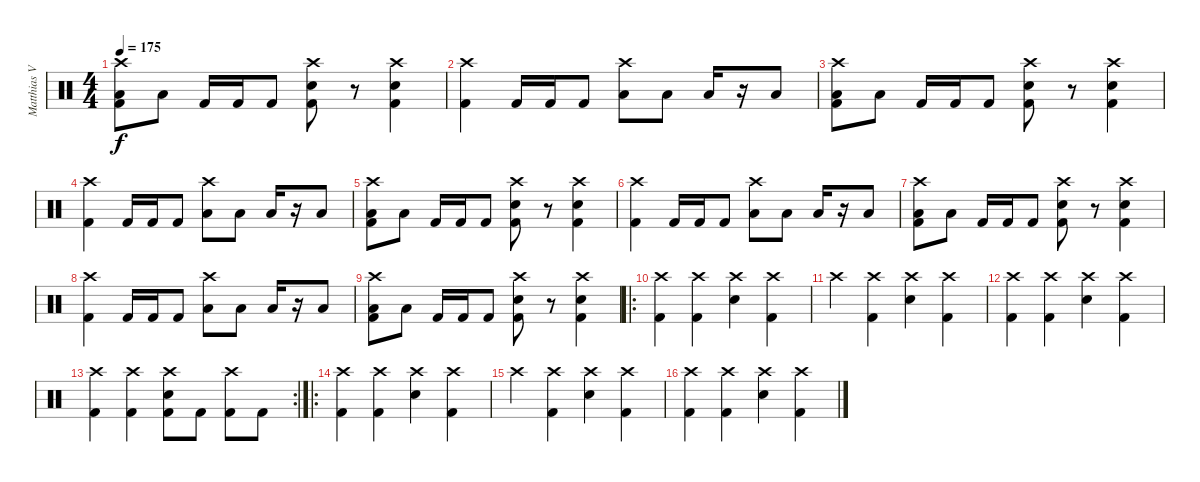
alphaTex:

\track ("Matthias Voigt" "Matthias V") {instrument percussion}
\staff {score}
\articulation defaults
\ts (4 4)
\tempo 175
\clef neutral
\ks c
("Crash high (hit)" "Low Tom (hit)" "Kick (hit) 2").8{dy f} "Low Tom (hit)".8 "Kick (hit) 2".16 "Kick (hit) 2".16 "Kick (hit) 2".8 ("Crash high (hit)" "Electric Snare (hit)" "Kick (hit) 2").8 r.8 ("Crash high (hit)" "Electric Snare (hit)" "Kick (hit) 2").4 |
("Crash high (hit)" "Kick (hit) 2").4 "Kick (hit) 2".16 "Kick (hit) 2".16 "Kick (hit) 2".8 ("Crash high (hit)" "Low Tom (hit)").8 "Low Tom (hit)".8 "Low Tom (hit)".16 r.16 "Low Tom (hit)".8 |
("Crash high (hit)" "Low Tom (hit)" "Kick (hit) 2").8 "Low Tom (hit)".8 "Kick (hit) 2".16 "Kick (hit) 2".16 "Kick (hit) 2".8 ("Crash high (hit)" "Electric Snare (hit)" "Kick (hit) 2").8 r.8 ("Crash high (hit)" "Electric Snare (hit)" "Kick (hit) 2").4 |
("Crash high (hit)" "Kick (hit) 2").4 "Kick (hit) 2".16 "Kick (hit) 2".16 "Kick (hit) 2".8 ("Crash high (hit)" "Low Tom (hit)").8 "Low Tom (hit)".8 "Low Tom (hit)".16 r.16 "Low Tom (hit)".8 |
("Crash high (hit)" "Low Tom (hit)" "Kick (hit) 2").8 "Low Tom (hit)".8 "Kick (hit) 2".16 "Kick (hit) 2".16 "Kick (hit) 2".8 ("Crash high (hit)" "Electric Snare (hit)" "Kick (hit) 2").8 r.8 ("Crash high (hit)" "Electric Snare (hit)" "Kick (hit) 2").4 |
("Crash high (hit)" "Kick (hit) 2").4 "Kick (hit) 2".16 "Kick (hit) 2".16 "Kick (hit) 2".8 ("Crash high (hit)" "Low Tom (hit)").8 "Low Tom (hit)".8 "Low Tom (hit)".16 r.16 "Low Tom (hit)".8 |
("Crash high (hit)" "Low Tom (hit)" "Kick (hit) 2").8 "Low Tom (hit)".8 "Kick (hit) 2".16 "Kick (hit) 2".16 "Kick (hit) 2".8 ("Crash high (hit)" "Electric Snare (hit)" "Kick (hit) 2").8 r.8 ("Crash high (hit)" "Electric Snare (hit)" "Kick (hit) 2").4 |
("Crash high (hit)" "Kick (hit) 2").4 "Kick (hit) 2".16 "Kick (hit) 2".16 "Kick (hit) 2".8 ("Crash high (hit)" "Low Tom (hit)").8 "Low Tom (hit)".8 "Low Tom (hit)".16 r.16 "Low Tom (hit)".8 |
("Crash high (hit)" "Low Tom (hit)" "Kick (hit) 2").8 "Low Tom (hit)".8 "Kick (hit) 2".16 "Kick (hit) 2".16 "Kick (hit) 2".8 ("Crash high (hit)" "Electric Snare (hit)" "Kick (hit) 2").8 r.8 ("Crash high (hit)" "Electric Snare (hit)" "Kick (hit) 2").4 |
\ro
("Crash high (hit)" "Kick (hit) 2").4 ("Crash high (hit)" "Kick (hit) 2").4 ("Crash high (hit)" "Electric Snare (hit)").4 ("Crash high (hit)" "Kick (hit) 2").4 |
"Crash high (hit)".4 ("Crash high (hit)" "Kick (hit) 2").4 ("Crash high (hit)" "Electric Snare (hit)").4 ("Crash high (hit)" "Kick (hit) 2").4 |
("Crash high (hit)" "Kick (hit) 2").4 ("Crash high (hit)" "Kick (hit) 2").4 ("Crash high (hit)" "Electric Snare (hit)").4 ("Crash high (hit)" "Kick (hit) 2").4 |
\rc 2
("Crash high (hit)" "Kick (hit) 2").4 ("Crash high (hit)" "Kick (hit) 2").4 ("Crash high (hit)" "Electric Snare (hit)" "Kick (hit) 2").8 "Kick (hit) 2".8 ("Crash high (hit)" "Kick (hit) 2").8 "Kick (hit) 2".8 |
\ro
("Crash high (hit)" "Kick (hit) 2").4 ("Crash high (hit)" "Kick (hit) 2").4 ("Crash high (hit)" "Electric Snare (hit)").4 ("Crash high (hit)" "Kick (hit) 2").4 |
"Crash high (hit)".4 ("Crash high (hit)" "Kick (hit) 2").4 ("Crash high (hit)" "Electric Snare (hit)").4 ("Crash high (hit)" "Kick (hit) 2").4 |
("Crash high (hit)" "Kick (hit) 2").4 ("Crash high (hit)" "Kick (hit) 2").4 ("Crash high (hit)" "Electric Snare (hit)").4 ("Crash high (hit)" "Kick (hit) 2").4
